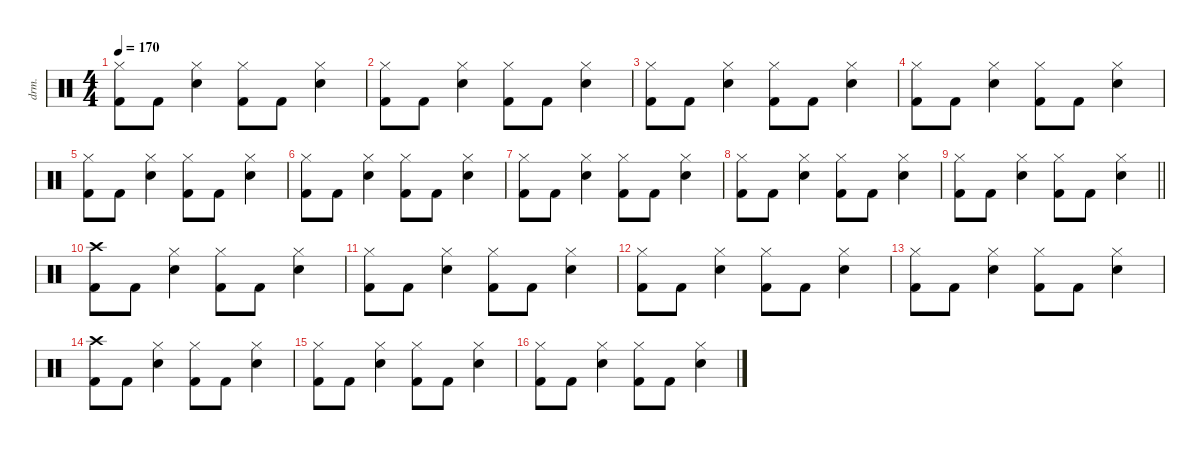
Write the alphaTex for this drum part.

\defaultSystemsLayout 4
\hideDynamics
\bracketExtendMode nobrackets
\otherSystemsTrackNameOrientation horizontal
\track ("Percussion" "drm.") {instrument percussion}
\staff {score}
\articulation defaults
\ts (4 4)
\tempo 170
\clef neutral
\ks c
("Hi-Hat (closed)" "Kick (hit) 2").8{dy f beam Down} "Kick (hit) 2".8{beam Down} ("Hi-Hat (closed)" "Snare (hit) 2").4{beam Down} ("Hi-Hat (closed)" "Kick (hit) 2").8{beam Down} "Kick (hit) 2".8{beam Down} ("Hi-Hat (closed)" "Snare (hit) 2").4{beam Down} |
("Hi-Hat (closed)" "Kick (hit) 2").8{beam Down} "Kick (hit) 2".8{beam Down} ("Hi-Hat (closed)" "Snare (hit) 2").4{beam Down} ("Hi-Hat (closed)" "Kick (hit) 2").8{beam Down} "Kick (hit) 2".8{beam Down} ("Hi-Hat (closed)" "Snare (hit) 2").4{beam Down} |
("Hi-Hat (closed)" "Kick (hit) 2").8{beam Down} "Kick (hit) 2".8{beam Down} ("Hi-Hat (closed)" "Snare (hit) 2").4{beam Down} ("Hi-Hat (closed)" "Kick (hit) 2").8{beam Down} "Kick (hit) 2".8{beam Down} ("Hi-Hat (closed)" "Snare (hit) 2").4{beam Down} |
("Hi-Hat (closed)" "Kick (hit) 2").8{beam Down} "Kick (hit) 2".8{beam Down} ("Hi-Hat (closed)" "Snare (hit) 2").4{beam Down} ("Hi-Hat (closed)" "Kick (hit) 2").8{beam Down} "Kick (hit) 2".8{beam Down} ("Hi-Hat (closed)" "Snare (hit) 2").4{beam Down} |
("Hi-Hat (closed)" "Kick (hit) 2").8{beam Down} "Kick (hit) 2".8{beam Down} ("Hi-Hat (closed)" "Snare (hit) 2").4{beam Down} ("Hi-Hat (closed)" "Kick (hit) 2").8{beam Down} "Kick (hit) 2".8{beam Down} ("Hi-Hat (closed)" "Snare (hit) 2").4{beam Down} |
("Hi-Hat (closed)" "Kick (hit) 2").8{beam Down} "Kick (hit) 2".8{beam Down} ("Hi-Hat (closed)" "Snare (hit) 2").4{beam Down} ("Hi-Hat (closed)" "Kick (hit) 2").8{beam Down} "Kick (hit) 2".8{beam Down} ("Hi-Hat (closed)" "Snare (hit) 2").4{beam Down} |
("Hi-Hat (closed)" "Kick (hit) 2").8{beam Down} "Kick (hit) 2".8{beam Down} ("Hi-Hat (closed)" "Snare (hit) 2").4{beam Down} ("Hi-Hat (closed)" "Kick (hit) 2").8{beam Down} "Kick (hit) 2".8{beam Down} ("Hi-Hat (closed)" "Snare (hit) 2").4{beam Down} |
("Hi-Hat (closed)" "Kick (hit) 2").8{beam Down} "Kick (hit) 2".8{beam Down} ("Hi-Hat (closed)" "Snare (hit) 2").4{beam Down} ("Hi-Hat (closed)" "Kick (hit) 2").8{beam Down} "Kick (hit) 2".8{beam Down} ("Hi-Hat (closed)" "Snare (hit) 2").4{beam Down} |
\barLineRight lightlight
("Hi-Hat (closed)" "Kick (hit) 2").8{beam Down} "Kick (hit) 2".8{beam Down} ("Hi-Hat (closed)" "Snare (hit) 2").4{beam Down} ("Hi-Hat (closed)" "Kick (hit) 2").8{beam Down} "Kick (hit) 2".8{beam Down} ("Hi-Hat (closed)" "Snare (hit) 2").4{beam Down} |
("Crash high (hit)" "Kick (hit) 2").8{beam Down} "Kick (hit) 2".8{beam Down} ("Hi-Hat (closed)" "Snare (hit) 2").4{beam Down} ("Hi-Hat (closed)" "Kick (hit) 2").8{beam Down} "Kick (hit) 2".8{beam Down} ("Hi-Hat (closed)" "Snare (hit) 2").4{beam Down} |
("Hi-Hat (closed)" "Kick (hit) 2").8{beam Down} "Kick (hit) 2".8{beam Down} ("Hi-Hat (closed)" "Snare (hit) 2").4{beam Down} ("Hi-Hat (closed)" "Kick (hit) 2").8{beam Down} "Kick (hit) 2".8{beam Down} ("Hi-Hat (closed)" "Snare (hit) 2").4{beam Down} |
("Hi-Hat (closed)" "Kick (hit) 2").8{beam Down} "Kick (hit) 2".8{beam Down} ("Hi-Hat (closed)" "Snare (hit) 2").4{beam Down} ("Hi-Hat (closed)" "Kick (hit) 2").8{beam Down} "Kick (hit) 2".8{beam Down} ("Hi-Hat (closed)" "Snare (hit) 2").4{beam Down} |
("Hi-Hat (closed)" "Kick (hit) 2").8{beam Down} "Kick (hit) 2".8{beam Down} ("Hi-Hat (closed)" "Snare (hit) 2").4{beam Down} ("Hi-Hat (closed)" "Kick (hit) 2").8{beam Down} "Kick (hit) 2".8{beam Down} ("Hi-Hat (closed)" "Snare (hit) 2").4{beam Down} |
("Crash high (hit)" "Kick (hit) 2").8{beam Down} "Kick (hit) 2".8{beam Down} ("Hi-Hat (closed)" "Snare (hit) 2").4{beam Down} ("Hi-Hat (closed)" "Kick (hit) 2").8{beam Down} "Kick (hit) 2".8{beam Down} ("Hi-Hat (closed)" "Snare (hit) 2").4{beam Down} |
("Hi-Hat (closed)" "Kick (hit) 2").8{beam Down} "Kick (hit) 2".8{beam Down} ("Hi-Hat (closed)" "Snare (hit) 2").4{beam Down} ("Hi-Hat (closed)" "Kick (hit) 2").8{beam Down} "Kick (hit) 2".8{beam Down} ("Hi-Hat (closed)" "Snare (hit) 2").4{beam Down} |
("Hi-Hat (closed)" "Kick (hit) 2").8{beam Down} "Kick (hit) 2".8{beam Down} ("Hi-Hat (closed)" "Snare (hit) 2").4{beam Down} ("Hi-Hat (closed)" "Kick (hit) 2").8{beam Down} "Kick (hit) 2".8{beam Down} ("Hi-Hat (closed)" "Snare (hit) 2").4{beam Down}
